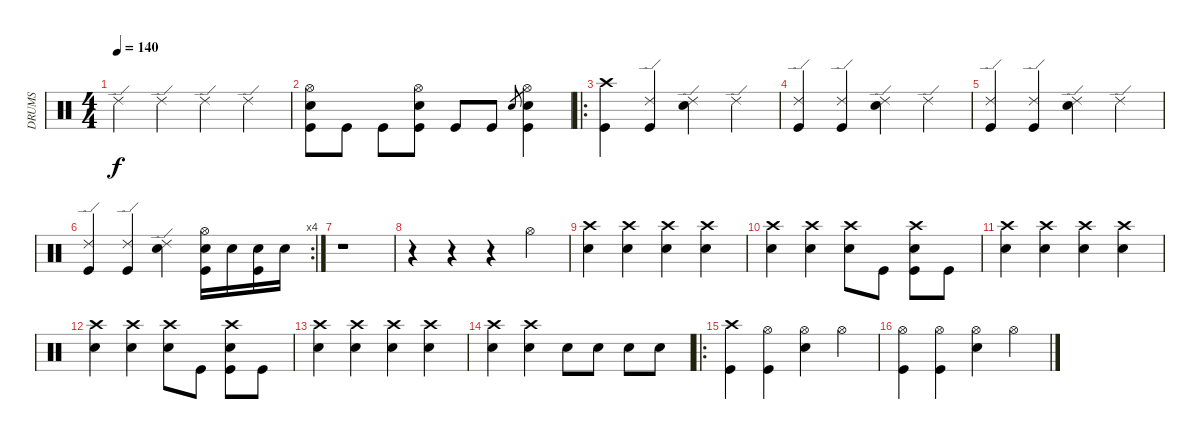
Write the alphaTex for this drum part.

\track ("DRUMS" "DRUMS") {instrument percussion}
\staff {score}
\articulation defaults
\ts (4 4)
\tempo 140
\clef neutral
\ks c "Ride (edge) 2".4{dy f} "Ride (edge) 2".4 "Ride (edge) 2".4 "Ride (edge) 2".4
|
("Hi-Hat (open)" "Electric Snare (hit)" "Kick (hit)").8 "Kick (hit)".8 "Kick (hit)".8 ("Hi-Hat (open)" "Electric Snare (hit)" "Kick (hit)").8 "Kick (hit)".8 "Kick (hit)".8 "Electric Snare (hit)".8{gr} ("Hi-Hat (open)" "Electric Snare (hit)" "Kick (hit)").4 |
\ro
("Crash high (hit)" "Kick (hit)").4 ("Ride (edge) 2" "Kick (hit)").4 ("Ride (edge) 2" "Electric Snare (hit)").4 "Ride (edge) 2".4 |
("Ride (edge) 2" "Kick (hit)").4 ("Ride (edge) 2" "Kick (hit)").4 ("Ride (edge) 2" "Electric Snare (hit)").4 "Ride (edge) 2".4 |
("Ride (edge) 2" "Kick (hit)").4 ("Ride (edge) 2" "Kick (hit)").4 ("Ride (edge) 2" "Electric Snare (hit)").4 "Ride (edge) 2".4 |
\rc 4
("Ride (edge) 2" "Kick (hit)").4 ("Ride (edge) 2" "Kick (hit)").4 ("Ride (edge) 2" "Electric Snare (hit)").4 ("Electric Snare (hit)" "Kick (hit)" "Hi-Hat (open)").16 "Electric Snare (hit)".16 ("Electric Snare (hit)" "Kick (hit)").16 "Electric Snare (hit)".16 |
r.1 |
r.4 r.4 r.4 "Hi-Hat (open)".4 |
("Crash high (hit)" "Electric Snare (hit)").4 ("Crash high (hit)" "Electric Snare (hit)").4 ("Crash high (hit)" "Electric Snare (hit)").4 ("Crash high (hit)" "Electric Snare (hit)").4 |
("Crash high (hit)" "Electric Snare (hit)").4 ("Crash high (hit)" "Electric Snare (hit)").4 ("Crash high (hit)" "Electric Snare (hit)").8 "Kick (hit)".8 ("Crash high (hit)" "Kick (hit)" "Electric Snare (hit)").8 "Kick (hit)".8 |
("Crash high (hit)" "Electric Snare (hit)").4 ("Crash high (hit)" "Electric Snare (hit)").4 ("Crash high (hit)" "Electric Snare (hit)").4 ("Crash high (hit)" "Electric Snare (hit)").4 |
("Crash high (hit)" "Electric Snare (hit)").4 ("Crash high (hit)" "Electric Snare (hit)").4 ("Crash high (hit)" "Electric Snare (hit)").8 "Kick (hit)".8 ("Crash high (hit)" "Kick (hit)" "Electric Snare (hit)").8 "Kick (hit)".8 |
("Crash high (hit)" "Electric Snare (hit)").4 ("Crash high (hit)" "Electric Snare (hit)").4 ("Crash high (hit)" "Electric Snare (hit)").4 ("Crash high (hit)" "Electric Snare (hit)").4 |
("Crash high (hit)" "Electric Snare (hit)").4 ("Crash high (hit)" "Electric Snare (hit)").4 "Electric Snare (hit)".8 "Electric Snare (hit)".8 "Electric Snare (hit)".8 "Electric Snare (hit)".8 |
\ro
("Crash high (hit)" "Kick (hit)").4 ("Hi-Hat (open)" "Kick (hit)").4 ("Hi-Hat (open)" "Electric Snare (hit)").4 "Hi-Hat (open)".4 |
("Hi-Hat (open)" "Kick (hit)").4 ("Hi-Hat (open)" "Kick (hit)").4 ("Hi-Hat (open)" "Electric Snare (hit)").4 "Hi-Hat (open)".4
